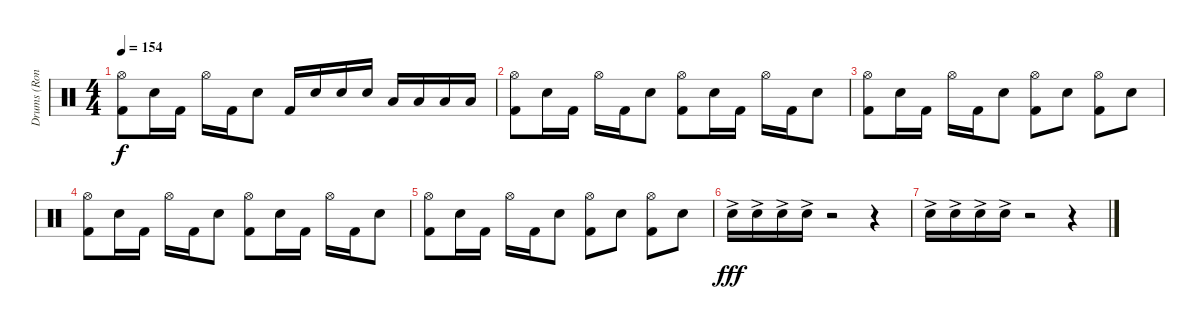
\track ("Drums (Ron Welty)" "Drums (Ron") {instrument percussion}
\staff {score}
\articulation defaults
\ts (4 4)
\tempo 154
\clef neutral
\ks c
("Hi-Hat (open)" "Kick (hit) 2").8{dy f} "Electric Snare (hit)".16 "Kick (hit) 2".16 "Hi-Hat (open)".16 "Kick (hit) 2".16 "Electric Snare (hit)".8 "Kick (hit) 2".16 "Electric Snare (hit)".16 "Electric Snare (hit)".16 "Electric Snare (hit)".16 "Low Tom (hit)".16 "Low Tom (hit)".16 "Low Floor Tom (hit)".16 "Low Floor Tom (hit)".16 |
("Hi-Hat (open)" "Kick (hit) 2").8 "Electric Snare (hit)".16 "Kick (hit) 2".16 "Hi-Hat (open)".16 "Kick (hit) 2".16 "Electric Snare (hit)".8 ("Hi-Hat (open)" "Kick (hit) 2").8 "Electric Snare (hit)".16 "Kick (hit) 2".16 "Hi-Hat (open)".16 "Kick (hit) 2".16 "Electric Snare (hit)".8 |
("Hi-Hat (open)" "Kick (hit) 2").8 "Electric Snare (hit)".16 "Kick (hit) 2".16 "Hi-Hat (open)".16 "Kick (hit) 2".16 "Electric Snare (hit)".8 ("Hi-Hat (open)" "Kick (hit) 2").8 "Electric Snare (hit)".8 ("Hi-Hat (open)" "Kick (hit) 2").8 "Electric Snare (hit)".8 |
("Hi-Hat (open)" "Kick (hit) 2").8 "Electric Snare (hit)".16 "Kick (hit) 2".16 "Hi-Hat (open)".16 "Kick (hit) 2".16 "Electric Snare (hit)".8 ("Hi-Hat (open)" "Kick (hit) 2").8 "Electric Snare (hit)".16 "Kick (hit) 2".16 "Hi-Hat (open)".16 "Kick (hit) 2".16 "Electric Snare (hit)".8 |
("Hi-Hat (open)" "Kick (hit) 2").8 "Electric Snare (hit)".16 "Kick (hit) 2".16 "Hi-Hat (open)".16 "Kick (hit) 2".16 "Electric Snare (hit)".8 ("Hi-Hat (open)" "Kick (hit) 2").8 "Electric Snare (hit)".8 ("Hi-Hat (open)" "Kick (hit) 2").8 "Electric Snare (hit)".8 |
"Electric Snare (hit)"{ac}.16{dy fff} "Electric Snare (hit)"{ac}.16 "Electric Snare (hit)"{ac}.16 "Electric Snare (hit)"{ac}.16 r.2 r.4 |
"Electric Snare (hit)"{ac}.16 "Electric Snare (hit)"{ac}.16 "Electric Snare (hit)"{ac}.16 "Electric Snare (hit)"{ac}.16 r.2 r.4
